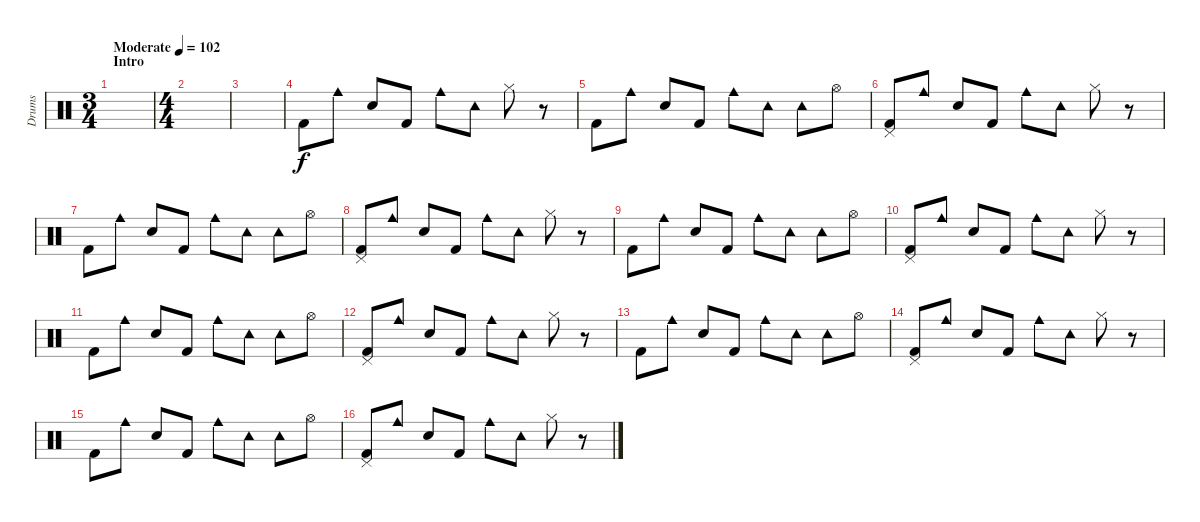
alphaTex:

\track ("Drums" "Drums") {instrument percussion}
\staff {score}
\articulation defaults
\ts (3 4)
\section ("" "Intro")
\tempo (102 "Moderate")
\clef neutral
\ks c
|
\ts (4 4)
|
|
"Kick (hit) 2".8 "Cowbell medium (hit)".8 "Electric Snare (hit)".8 "Kick (hit) 2".8 "Cowbell medium (hit)".8 "Tambourine (hit)".8 "Hi-Hat (closed)".8 r.8 |
"Kick (hit) 2".8 "Cowbell medium (hit)".8 "Electric Snare (hit)".8 "Kick (hit) 2".8 "Cowbell medium (hit)".8 "Tambourine (hit)".8 "Tambourine (hit)".8 "Hi-Hat (open)".8 |
("Pedal Hi-Hat (hit)" "Kick (hit) 2").8 "Cowbell medium (hit)".8 "Electric Snare (hit)".8 "Kick (hit) 2".8 "Cowbell medium (hit)".8 "Tambourine (hit)".8 "Hi-Hat (closed)".8 r.8 |
"Kick (hit) 2".8 "Cowbell medium (hit)".8 "Electric Snare (hit)".8 "Kick (hit) 2".8 "Cowbell medium (hit)".8 "Tambourine (hit)".8 "Tambourine (hit)".8 "Hi-Hat (open)".8 |
("Pedal Hi-Hat (hit)" "Kick (hit) 2").8 "Cowbell medium (hit)".8 "Electric Snare (hit)".8 "Kick (hit) 2".8 "Cowbell medium (hit)".8 "Tambourine (hit)".8 "Hi-Hat (closed)".8 r.8 |
"Kick (hit) 2".8 "Cowbell medium (hit)".8 "Electric Snare (hit)".8 "Kick (hit) 2".8 "Cowbell medium (hit)".8 "Tambourine (hit)".8 "Tambourine (hit)".8 "Hi-Hat (open)".8 |
("Pedal Hi-Hat (hit)" "Kick (hit) 2").8 "Cowbell medium (hit)".8 "Electric Snare (hit)".8 "Kick (hit) 2".8 "Cowbell medium (hit)".8 "Tambourine (hit)".8 "Hi-Hat (closed)".8 r.8 |
"Kick (hit) 2".8 "Cowbell medium (hit)".8 "Electric Snare (hit)".8 "Kick (hit) 2".8 "Cowbell medium (hit)".8 "Tambourine (hit)".8 "Tambourine (hit)".8 "Hi-Hat (open)".8 |
("Pedal Hi-Hat (hit)" "Kick (hit) 2").8 "Cowbell medium (hit)".8 "Electric Snare (hit)".8 "Kick (hit) 2".8 "Cowbell medium (hit)".8 "Tambourine (hit)".8 "Hi-Hat (closed)".8 r.8 |
"Kick (hit) 2".8 "Cowbell medium (hit)".8 "Electric Snare (hit)".8 "Kick (hit) 2".8 "Cowbell medium (hit)".8 "Tambourine (hit)".8 "Tambourine (hit)".8 "Hi-Hat (open)".8 |
("Pedal Hi-Hat (hit)" "Kick (hit) 2").8 "Cowbell medium (hit)".8 "Electric Snare (hit)".8 "Kick (hit) 2".8 "Cowbell medium (hit)".8 "Tambourine (hit)".8 "Hi-Hat (closed)".8 r.8 |
"Kick (hit) 2".8 "Cowbell medium (hit)".8 "Electric Snare (hit)".8 "Kick (hit) 2".8 "Cowbell medium (hit)".8 "Tambourine (hit)".8 "Tambourine (hit)".8 "Hi-Hat (open)".8 |
("Pedal Hi-Hat (hit)" "Kick (hit) 2").8 "Cowbell medium (hit)".8 "Electric Snare (hit)".8 "Kick (hit) 2".8 "Cowbell medium (hit)".8 "Tambourine (hit)".8 "Hi-Hat (closed)".8 r.8
